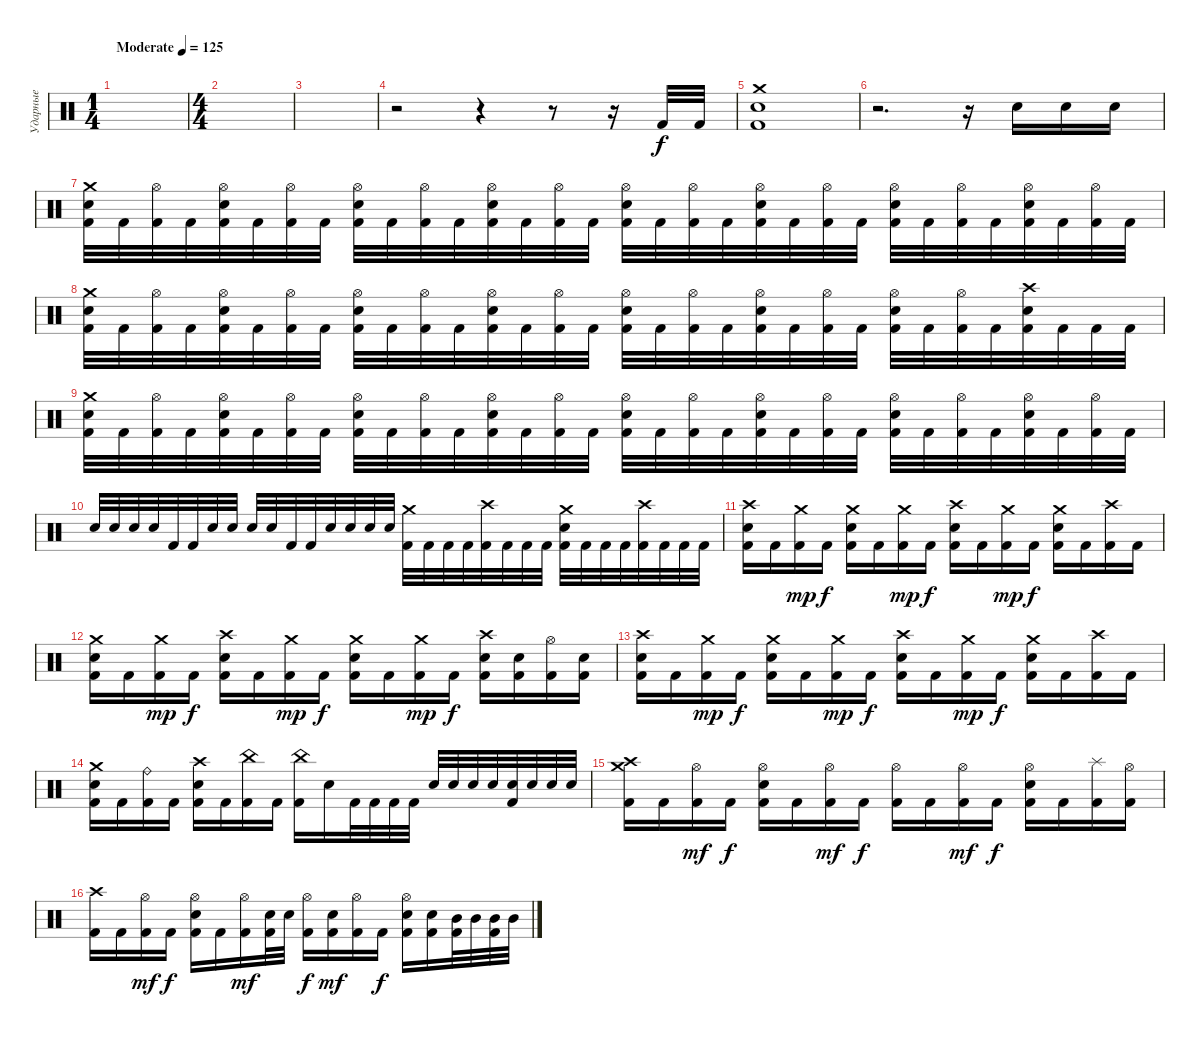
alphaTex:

\track ("Ударные" "Ударные") {instrument percussion}
\staff {score}
\articulation defaults
\ts (1 4)
\tempo (125 "Moderate")
\clef neutral
\ks c
|
\ts (4 4)
|
|
r.2 r.4 r.8 r.16 "Kick (hit) 2".32 "Kick (hit) 2".32 |
("Crash medium (hit)" "Kick (hit) 2" "Electric Snare (hit)").1 |
r.2{d} r.16 "Electric Snare (hit)".16 "Electric Snare (hit)".16 "Electric Snare (hit)".16 |
("Crash medium (hit)" "Electric Snare (hit)" "Kick (hit) 2").32 "Kick (hit) 2".32 ("Hi-Hat (open)" "Kick (hit) 2").32 "Kick (hit) 2".32 ("Hi-Hat (open)" "Electric Snare (hit)" "Kick (hit) 2").32 "Kick (hit) 2".32 ("Hi-Hat (open)" "Kick (hit) 2").32 "Kick (hit) 2".32 ("Hi-Hat (open)" "Electric Snare (hit)" "Kick (hit) 2").32 "Kick (hit) 2".32 ("Hi-Hat (open)" "Kick (hit) 2").32 "Kick (hit) 2".32 ("Hi-Hat (open)" "Electric Snare (hit)" "Kick (hit) 2").32 "Kick (hit) 2".32 ("Hi-Hat (open)" "Kick (hit) 2").32 "Kick (hit) 2".32 ("Hi-Hat (open)" "Electric Snare (hit)" "Kick (hit) 2").32 "Kick (hit) 2".32 ("Hi-Hat (open)" "Kick (hit) 2").32 "Kick (hit) 2".32 ("Hi-Hat (open)" "Electric Snare (hit)" "Kick (hit) 2").32 "Kick (hit) 2".32 ("Hi-Hat (open)" "Kick (hit) 2").32 "Kick (hit) 2".32 ("Hi-Hat (open)" "Electric Snare (hit)" "Kick (hit) 2").32 "Kick (hit) 2".32 ("Hi-Hat (open)" "Kick (hit) 2").32 "Kick (hit) 2".32 ("Hi-Hat (open)" "Electric Snare (hit)" "Kick (hit) 2").32 "Kick (hit) 2".32 ("Hi-Hat (open)" "Kick (hit) 2").32 "Kick (hit) 2".32 |
("Crash medium (hit)" "Electric Snare (hit)" "Kick (hit) 2").32 "Kick (hit) 2".32 ("Hi-Hat (open)" "Kick (hit) 2").32 "Kick (hit) 2".32 ("Hi-Hat (open)" "Electric Snare (hit)" "Kick (hit) 2").32 "Kick (hit) 2".32 ("Hi-Hat (open)" "Kick (hit) 2").32 "Kick (hit) 2".32 ("Hi-Hat (open)" "Electric Snare (hit)" "Kick (hit) 2").32 "Kick (hit) 2".32 ("Hi-Hat (open)" "Kick (hit) 2").32 "Kick (hit) 2".32 ("Hi-Hat (open)" "Electric Snare (hit)" "Kick (hit) 2").32 "Kick (hit) 2".32 ("Hi-Hat (open)" "Kick (hit) 2").32 "Kick (hit) 2".32 ("Hi-Hat (open)" "Electric Snare (hit)" "Kick (hit) 2").32 "Kick (hit) 2".32 ("Hi-Hat (open)" "Kick (hit) 2").32 "Kick (hit) 2".32 ("Hi-Hat (open)" "Electric Snare (hit)" "Kick (hit) 2").32 "Kick (hit) 2".32 ("Hi-Hat (open)" "Kick (hit) 2").32 "Kick (hit) 2".32 ("Hi-Hat (open)" "Electric Snare (hit)" "Kick (hit) 2").32 "Kick (hit) 2".32 ("Hi-Hat (open)" "Kick (hit) 2").32 "Kick (hit) 2".32 ("Crash high (hit)" "Electric Snare (hit)" "Kick (hit) 2").32 "Kick (hit) 2".32 "Kick (hit) 2".32 "Kick (hit) 2".32 |
("Crash medium (hit)" "Electric Snare (hit)" "Kick (hit) 2").32 "Kick (hit) 2".32 ("Hi-Hat (open)" "Kick (hit) 2").32 "Kick (hit) 2".32 ("Hi-Hat (open)" "Electric Snare (hit)" "Kick (hit) 2").32 "Kick (hit) 2".32 ("Hi-Hat (open)" "Kick (hit) 2").32 "Kick (hit) 2".32 ("Hi-Hat (open)" "Electric Snare (hit)" "Kick (hit) 2").32 "Kick (hit) 2".32 ("Hi-Hat (open)" "Kick (hit) 2").32 "Kick (hit) 2".32 ("Hi-Hat (open)" "Electric Snare (hit)" "Kick (hit) 2").32 "Kick (hit) 2".32 ("Hi-Hat (open)" "Kick (hit) 2").32 "Kick (hit) 2".32 ("Hi-Hat (open)" "Electric Snare (hit)" "Kick (hit) 2").32 "Kick (hit) 2".32 ("Hi-Hat (open)" "Kick (hit) 2").32 "Kick (hit) 2".32 ("Hi-Hat (open)" "Electric Snare (hit)" "Kick (hit) 2").32 "Kick (hit) 2".32 ("Hi-Hat (open)" "Kick (hit) 2").32 "Kick (hit) 2".32 ("Hi-Hat (open)" "Electric Snare (hit)" "Kick (hit) 2").32 "Kick (hit) 2".32 ("Hi-Hat (open)" "Kick (hit) 2").32 "Kick (hit) 2".32 ("Hi-Hat (open)" "Electric Snare (hit)" "Kick (hit) 2").32 "Kick (hit) 2".32 ("Hi-Hat (open)" "Kick (hit) 2").32 "Kick (hit) 2".32 |
"Electric Snare (hit)".32 "Electric Snare (hit)".32 "Electric Snare (hit)".32 "Electric Snare (hit)".32 "Kick (hit) 2".32 "Kick (hit) 2".32 "Electric Snare (hit)".32 "Electric Snare (hit)".32 "Electric Snare (hit)".32 "Electric Snare (hit)".32 "Kick (hit) 2".32 "Kick (hit) 2".32 "Electric Snare (hit)".32 "Electric Snare (hit)".32 "Electric Snare (hit)".32 "Electric Snare (hit)".32 ("Crash medium (hit)" "Kick (hit) 2").32 "Kick (hit) 2".32 "Kick (hit) 2".32 "Kick (hit) 2".32 ("Crash high (hit)" "Kick (hit) 2").32 "Kick (hit) 2".32 "Kick (hit) 2".32 "Kick (hit) 2".32 ("Crash medium (hit)" "Electric Snare (hit)" "Kick (hit) 2").32 "Kick (hit) 2".32 "Kick (hit) 2".32 "Kick (hit) 2".32 ("Crash high (hit)" "Kick (hit) 2").32 "Kick (hit) 2".32 "Kick (hit) 2".32 "Kick (hit) 2".32 |
("Kick (hit) 2" "Electric Snare (hit)" "Crash high (hit)").16 "Kick (hit) 2".16 ("Kick (hit) 2" "Crash medium (hit)").16{dy mp} "Kick (hit) 2".16{dy f} ("Kick (hit) 2" "Electric Snare (hit)" "Crash medium (hit)").16 "Kick (hit) 2".16 ("Kick (hit) 2" "Crash medium (hit)").16{dy mp} "Kick (hit) 2".16{dy f} ("Kick (hit) 2" "Electric Snare (hit)" "Crash high (hit)").16 "Kick (hit) 2".16 ("Kick (hit) 2" "Crash medium (hit)").16{dy mp} "Kick (hit) 2".16{dy f} ("Kick (hit) 2" "Electric Snare (hit)" "Crash medium (hit)").16 "Kick (hit) 2".16 ("Kick (hit) 2" "Crash high (hit)").16 "Kick (hit) 2".16 |
("Kick (hit) 2" "Electric Snare (hit)" "Crash medium (hit)").16 "Kick (hit) 2".16 ("Kick (hit) 2" "Crash medium (hit)").16{dy mp} "Kick (hit) 2".16{dy f} ("Kick (hit) 2" "Electric Snare (hit)" "Crash high (hit)").16 "Kick (hit) 2".16 ("Kick (hit) 2" "Crash medium (hit)").16{dy mp} "Kick (hit) 2".16{dy f} ("Kick (hit) 2" "Electric Snare (hit)" "Crash medium (hit)").16 "Kick (hit) 2".16 ("Kick (hit) 2" "Crash medium (hit)").16{dy mp} "Kick (hit) 2".16{dy f} ("Kick (hit) 2" "Electric Snare (hit)" "Crash high (hit)").16 ("Kick (hit) 2" "Electric Snare (hit)").16 ("Kick (hit) 2" "Hi-Hat (open)").16 ("Kick (hit) 2" "Electric Snare (hit)").16 |
("Kick (hit) 2" "Electric Snare (hit)" "Crash high (hit)").16 "Kick (hit) 2".16 ("Kick (hit) 2" "Crash medium (hit)").16{dy mp} "Kick (hit) 2".16{dy f} ("Kick (hit) 2" "Electric Snare (hit)" "Crash medium (hit)").16 "Kick (hit) 2".16 ("Kick (hit) 2" "Crash medium (hit)").16{dy mp} "Kick (hit) 2".16{dy f} ("Kick (hit) 2" "Electric Snare (hit)" "Crash high (hit)").16 "Kick (hit) 2".16 ("Kick (hit) 2" "Crash medium (hit)").16{dy mp} "Kick (hit) 2".16{dy f} ("Kick (hit) 2" "Electric Snare (hit)" "Crash medium (hit)").16 "Kick (hit) 2".16 ("Kick (hit) 2" "Crash high (hit)").16 "Kick (hit) 2".16 |
("Kick (hit) 2" "Electric Snare (hit)" "Crash medium (hit)").16 "Kick (hit) 2".16 ("Kick (hit) 2" "Ride (bell)").16 "Kick (hit) 2".16 ("Kick (hit) 2" "Electric Snare (hit)" "Crash high (hit)").16 "Kick (hit) 2".16 ("Kick (hit) 2" "China (hit)").16 "Kick (hit) 2".16 ("Kick (hit) 2" "China (hit)").16 "Electric Snare (hit)".16 "Kick (hit) 2".32 "Kick (hit) 2".32 "Kick (hit) 2".32 "Kick (hit) 2".32 "Electric Snare (hit)".32 "Electric Snare (hit)".32 "Electric Snare (hit)".32 "Electric Snare (hit)".32 ("Electric Snare (hit)" "Kick (hit) 2").32 "Electric Snare (hit)".32 "Electric Snare (hit)".32 "Electric Snare (hit)".32 |
("Crash high (hit)" "Crash medium (hit)" "Kick (hit) 2").16 "Kick (hit) 2".16 ("Hi-Hat (open)" "Kick (hit) 2").16{dy mf} "Kick (hit) 2".16{dy f} ("Hi-Hat (open)" "Electric Snare (hit)" "Kick (hit) 2").16 "Kick (hit) 2".16 ("Hi-Hat (open)" "Kick (hit) 2").16{dy mf} "Kick (hit) 2".16{dy f} ("Hi-Hat (open)" "Kick (hit) 2").16 "Kick (hit) 2".16 ("Hi-Hat (open)" "Kick (hit) 2").16{dy mf} "Kick (hit) 2".16{dy f} ("Hi-Hat (open)" "Electric Snare (hit)" "Kick (hit) 2").16 "Kick (hit) 2".16 ("Splash (hit)" "Kick (hit) 2").16 ("Hi-Hat (open)" "Kick (hit) 2").16 |
("Crash high (hit)" "Kick (hit) 2").16 "Kick (hit) 2".16 ("Hi-Hat (open)" "Kick (hit) 2").16{dy mf} "Kick (hit) 2".16{dy f} ("Hi-Hat (open)" "Electric Snare (hit)" "Kick (hit) 2").16 "Kick (hit) 2".16 ("Hi-Hat (open)" "Kick (hit) 2").16{dy mf} ("Electric Snare (hit)" "Kick (hit) 2").32 "Electric Snare (hit)".32 ("Hi-Hat (open)" "Kick (hit) 2").16{dy f} ("Electric Snare (hit)" "Kick (hit) 2").16{dy mf} ("Hi-Hat (open)" "Kick (hit) 2").16 "Kick (hit) 2".16{dy f} ("Hi-Hat (open)" "Electric Snare (hit)" "Kick (hit) 2").16 ("Electric Snare (hit)" "Kick (hit) 2").16 ("Mid Tom (hit)" "Kick (hit) 2").32 "Mid Tom (hit)".32 ("Mid Tom (hit)" "Kick (hit) 2").32 "Mid Tom (hit)".32
